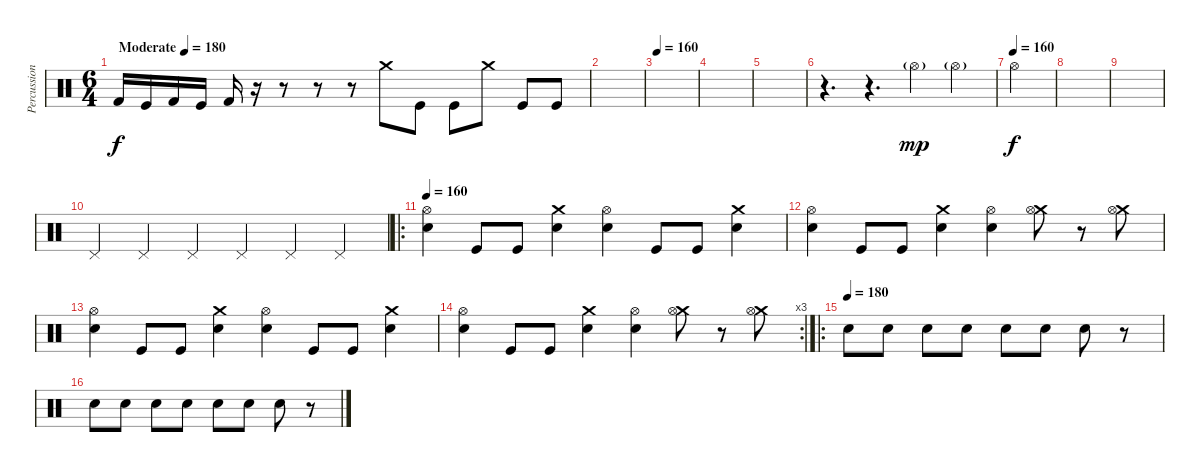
\track ("Percussion" "Percussion") {instrument percussion}
\staff {score}
\articulation defaults
\ts (6 4)
\tempo (180 "Moderate")
\clef neutral
\ks c "Kick (hit) 2".16{dy f} "Kick (hit)".16 "Kick (hit) 2".16 "Kick (hit)".16 "Kick (hit) 2".16
r.16 r.8 r.8 r.8 "Crash medium (hit)".8 "Kick (hit)".8 "Kick (hit)".8 "Crash medium (hit)".8 "Kick (hit)".8 "Kick (hit)".8 |
|
\tempo 160
|
|
|
r.4{d} r.4{d} "Hi-Hat (open)"{g}.4{dy mp} "Hi-Hat (open)"{g}.4 |
\tempo (160)
"Hi-Hat (open)".4{dy f} |
|
|
"Pedal Hi-Hat (hit)".4 "Pedal Hi-Hat (hit)".4 "Pedal Hi-Hat (hit)".4 "Pedal Hi-Hat (hit)".4 "Pedal Hi-Hat (hit)".4 "Pedal Hi-Hat (hit)".4 |
\ro
\tempo 160
("Hi-Hat (open)" "Snare (hit) 2").4 "Kick (hit)".8 "Kick (hit)".8 ("Crash medium (hit)" "Snare (hit) 2").4 ("Hi-Hat (open)" "Snare (hit) 2").4 "Kick (hit)".8 "Kick (hit)".8 ("Crash medium (hit)" "Snare (hit) 2").4 |
("Hi-Hat (open)" "Snare (hit) 2").4 "Kick (hit)".8 "Kick (hit)".8 ("Crash medium (hit)" "Snare (hit) 2").4 ("Hi-Hat (open)" "Snare (hit) 2").4 ("Crash medium (hit)" "Hi-Hat (open)").8 r.8 ("Crash medium (hit)" "Hi-Hat (open)").8 |
("Hi-Hat (open)" "Snare (hit) 2").4 "Kick (hit)".8 "Kick (hit)".8 ("Crash medium (hit)" "Snare (hit) 2").4 ("Hi-Hat (open)" "Snare (hit) 2").4 "Kick (hit)".8 "Kick (hit)".8 ("Crash medium (hit)" "Snare (hit) 2").4 |
\rc 3
("Hi-Hat (open)" "Snare (hit) 2").4 "Kick (hit)".8 "Kick (hit)".8 ("Crash medium (hit)" "Snare (hit) 2").4 ("Hi-Hat (open)" "Snare (hit) 2").4 ("Crash medium (hit)" "Hi-Hat (open)").8 r.8 ("Crash medium (hit)" "Hi-Hat (open)").8 |
\ro
\tempo (180)
"Snare (hit) 2".8 "Snare (hit) 2".8 "Snare (hit) 2".8 "Snare (hit) 2".8 "Snare (hit) 2".8 "Snare (hit) 2".8 "Snare (hit) 2".8 r.8 |
"Snare (hit) 2".8 "Snare (hit) 2".8 "Snare (hit) 2".8 "Snare (hit) 2".8 "Snare (hit) 2".8 "Snare (hit) 2".8 "Snare (hit) 2".8 r.8
